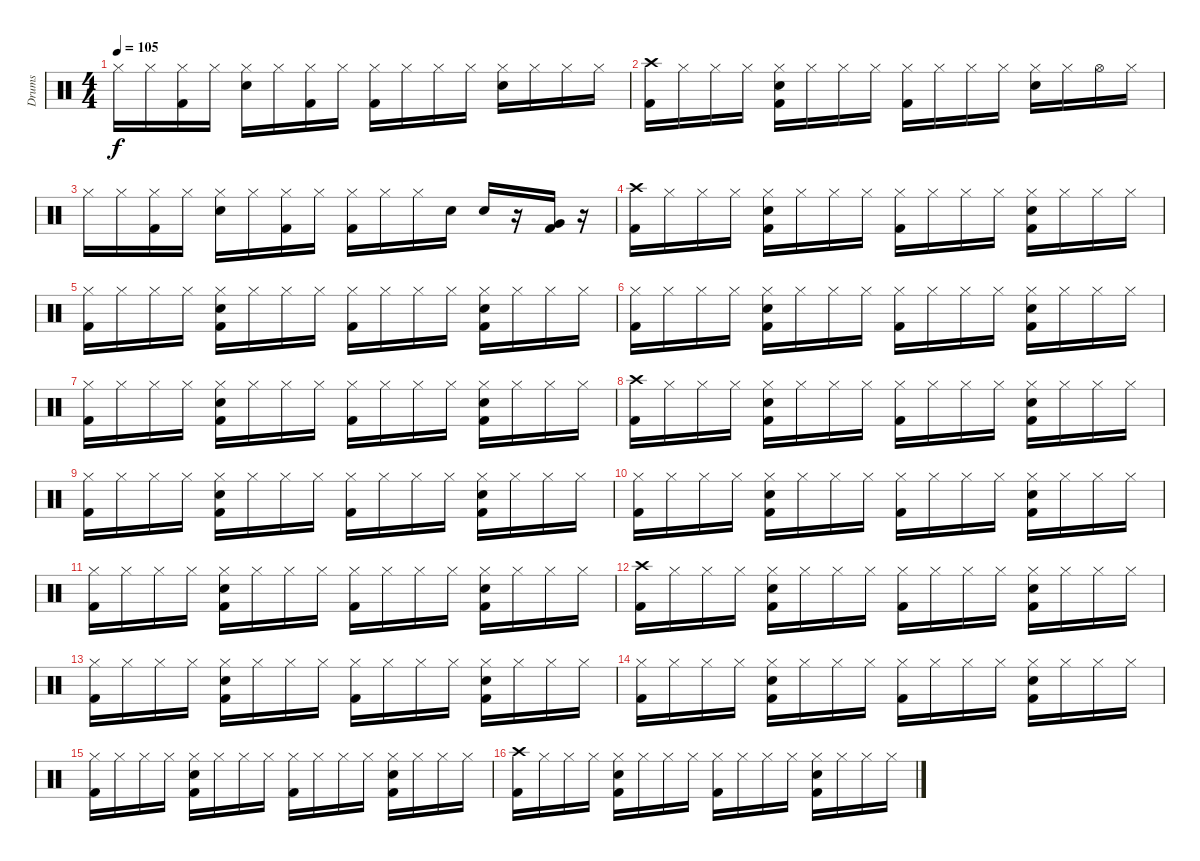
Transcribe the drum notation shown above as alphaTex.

\track ("Drums" "Drums") {instrument percussion}
\staff {score}
\articulation defaults
\ts (4 4)
\tempo 105
\clef neutral
\ks c "Hi-Hat (closed)".16{dy f} "Hi-Hat (closed)".16
("Kick (hit) 2" "Hi-Hat (closed)").16 "Hi-Hat (closed)".16 ("Snare (hit) 2" "Hi-Hat (closed)").16 "Hi-Hat (closed)".16 ("Kick (hit) 2" "Hi-Hat (closed)").16 "Hi-Hat (closed)".16 ("Kick (hit) 2" "Hi-Hat (closed)").16 "Hi-Hat (closed)".16 "Hi-Hat (closed)".16 "Hi-Hat (closed)".16 ("Snare (hit) 2" "Hi-Hat (closed)").16 "Hi-Hat (closed)".16 "Hi-Hat (closed)".16 "Hi-Hat (closed)".16 |
("Kick (hit) 2" "Crash high (hit)").16 "Hi-Hat (closed)".16 "Hi-Hat (closed)".16 "Hi-Hat (closed)".16 ("Snare (hit) 2" "Kick (hit) 2" "Hi-Hat (closed)").16 "Hi-Hat (closed)".16 "Hi-Hat (closed)".16 "Hi-Hat (closed)".16 ("Kick (hit) 2" "Hi-Hat (closed)").16 "Hi-Hat (closed)".16 "Hi-Hat (closed)".16 "Hi-Hat (closed)".16 ("Snare (hit) 2" "Hi-Hat (closed)").16 "Hi-Hat (closed)".16 "Hi-Hat (open)".16 "Hi-Hat (closed)".16 |
"Hi-Hat (closed)".16 "Hi-Hat (closed)".16 ("Kick (hit) 2" "Hi-Hat (closed)").16 "Hi-Hat (closed)".16 ("Snare (hit) 2" "Hi-Hat (closed)").16 "Hi-Hat (closed)".16 ("Kick (hit) 2" "Hi-Hat (closed)").16 "Hi-Hat (closed)".16 ("Kick (hit) 2" "Hi-Hat (closed)").16 "Hi-Hat (closed)".16 "Hi-Hat (closed)".16 "Snare (hit) 2".16 "Snare (hit) 2".16 r.16 ("Very Low Tom (hit)" "Kick (hit) 2").16 r.16 |
("Kick (hit) 2" "Crash high (hit)").16 "Hi-Hat (closed)".16 "Hi-Hat (closed)".16 "Hi-Hat (closed)".16 ("Kick (hit) 2" "Snare (hit) 2" "Hi-Hat (closed)").16 "Hi-Hat (closed)".16 "Hi-Hat (closed)".16 "Hi-Hat (closed)".16 ("Kick (hit) 2" "Hi-Hat (closed)").16 "Hi-Hat (closed)".16 "Hi-Hat (closed)".16 "Hi-Hat (closed)".16 ("Kick (hit) 2" "Snare (hit) 2" "Hi-Hat (closed)").16 "Hi-Hat (closed)".16 "Hi-Hat (closed)".16 "Hi-Hat (closed)".16 |
("Kick (hit) 2" "Hi-Hat (closed)").16 "Hi-Hat (closed)".16 "Hi-Hat (closed)".16 "Hi-Hat (closed)".16 ("Kick (hit) 2" "Snare (hit) 2" "Hi-Hat (closed)").16 "Hi-Hat (closed)".16 "Hi-Hat (closed)".16 "Hi-Hat (closed)".16 ("Kick (hit) 2" "Hi-Hat (closed)").16 "Hi-Hat (closed)".16 "Hi-Hat (closed)".16 "Hi-Hat (closed)".16 ("Kick (hit) 2" "Snare (hit) 2" "Hi-Hat (closed)").16 "Hi-Hat (closed)".16 "Hi-Hat (closed)".16 "Hi-Hat (closed)".16 |
("Kick (hit) 2" "Hi-Hat (closed)").16 "Hi-Hat (closed)".16 "Hi-Hat (closed)".16 "Hi-Hat (closed)".16 ("Kick (hit) 2" "Snare (hit) 2" "Hi-Hat (closed)").16 "Hi-Hat (closed)".16 "Hi-Hat (closed)".16 "Hi-Hat (closed)".16 ("Kick (hit) 2" "Hi-Hat (closed)").16 "Hi-Hat (closed)".16 "Hi-Hat (closed)".16 "Hi-Hat (closed)".16 ("Kick (hit) 2" "Snare (hit) 2" "Hi-Hat (closed)").16 "Hi-Hat (closed)".16 "Hi-Hat (closed)".16 "Hi-Hat (closed)".16 |
("Kick (hit) 2" "Hi-Hat (closed)").16 "Hi-Hat (closed)".16 "Hi-Hat (closed)".16 "Hi-Hat (closed)".16 ("Kick (hit) 2" "Snare (hit) 2" "Hi-Hat (closed)").16 "Hi-Hat (closed)".16 "Hi-Hat (closed)".16 "Hi-Hat (closed)".16 ("Kick (hit) 2" "Hi-Hat (closed)").16 "Hi-Hat (closed)".16 "Hi-Hat (closed)".16 "Hi-Hat (closed)".16 ("Kick (hit) 2" "Snare (hit) 2" "Hi-Hat (closed)").16 "Hi-Hat (closed)".16 "Hi-Hat (closed)".16 "Hi-Hat (closed)".16 |
("Kick (hit) 2" "Crash high (hit)").16 "Hi-Hat (closed)".16 "Hi-Hat (closed)".16 "Hi-Hat (closed)".16 ("Kick (hit) 2" "Snare (hit) 2" "Hi-Hat (closed)").16 "Hi-Hat (closed)".16 "Hi-Hat (closed)".16 "Hi-Hat (closed)".16 ("Kick (hit) 2" "Hi-Hat (closed)").16 "Hi-Hat (closed)".16 "Hi-Hat (closed)".16 "Hi-Hat (closed)".16 ("Kick (hit) 2" "Snare (hit) 2" "Hi-Hat (closed)").16 "Hi-Hat (closed)".16 "Hi-Hat (closed)".16 "Hi-Hat (closed)".16 |
("Kick (hit) 2" "Hi-Hat (closed)").16 "Hi-Hat (closed)".16 "Hi-Hat (closed)".16 "Hi-Hat (closed)".16 ("Kick (hit) 2" "Snare (hit) 2" "Hi-Hat (closed)").16 "Hi-Hat (closed)".16 "Hi-Hat (closed)".16 "Hi-Hat (closed)".16 ("Kick (hit) 2" "Hi-Hat (closed)").16 "Hi-Hat (closed)".16 "Hi-Hat (closed)".16 "Hi-Hat (closed)".16 ("Kick (hit) 2" "Snare (hit) 2" "Hi-Hat (closed)").16 "Hi-Hat (closed)".16 "Hi-Hat (closed)".16 "Hi-Hat (closed)".16 |
("Kick (hit) 2" "Hi-Hat (closed)").16 "Hi-Hat (closed)".16 "Hi-Hat (closed)".16 "Hi-Hat (closed)".16 ("Kick (hit) 2" "Snare (hit) 2" "Hi-Hat (closed)").16 "Hi-Hat (closed)".16 "Hi-Hat (closed)".16 "Hi-Hat (closed)".16 ("Kick (hit) 2" "Hi-Hat (closed)").16 "Hi-Hat (closed)".16 "Hi-Hat (closed)".16 "Hi-Hat (closed)".16 ("Kick (hit) 2" "Snare (hit) 2" "Hi-Hat (closed)").16 "Hi-Hat (closed)".16 "Hi-Hat (closed)".16 "Hi-Hat (closed)".16 |
("Kick (hit) 2" "Hi-Hat (closed)").16 "Hi-Hat (closed)".16 "Hi-Hat (closed)".16 "Hi-Hat (closed)".16 ("Kick (hit) 2" "Snare (hit) 2" "Hi-Hat (closed)").16 "Hi-Hat (closed)".16 "Hi-Hat (closed)".16 "Hi-Hat (closed)".16 ("Kick (hit) 2" "Hi-Hat (closed)").16 "Hi-Hat (closed)".16 "Hi-Hat (closed)".16 "Hi-Hat (closed)".16 ("Kick (hit) 2" "Snare (hit) 2" "Hi-Hat (closed)").16 "Hi-Hat (closed)".16 "Hi-Hat (closed)".16 "Hi-Hat (closed)".16 |
("Kick (hit) 2" "Crash high (hit)").16 "Hi-Hat (closed)".16 "Hi-Hat (closed)".16 "Hi-Hat (closed)".16 ("Kick (hit) 2" "Snare (hit) 2" "Hi-Hat (closed)").16 "Hi-Hat (closed)".16 "Hi-Hat (closed)".16 "Hi-Hat (closed)".16 ("Kick (hit) 2" "Hi-Hat (closed)").16 "Hi-Hat (closed)".16 "Hi-Hat (closed)".16 "Hi-Hat (closed)".16 ("Kick (hit) 2" "Snare (hit) 2" "Hi-Hat (closed)").16 "Hi-Hat (closed)".16 "Hi-Hat (closed)".16 "Hi-Hat (closed)".16 |
("Kick (hit) 2" "Hi-Hat (closed)").16 "Hi-Hat (closed)".16 "Hi-Hat (closed)".16 "Hi-Hat (closed)".16 ("Kick (hit) 2" "Snare (hit) 2" "Hi-Hat (closed)").16 "Hi-Hat (closed)".16 "Hi-Hat (closed)".16 "Hi-Hat (closed)".16 ("Kick (hit) 2" "Hi-Hat (closed)").16 "Hi-Hat (closed)".16 "Hi-Hat (closed)".16 "Hi-Hat (closed)".16 ("Kick (hit) 2" "Snare (hit) 2" "Hi-Hat (closed)").16 "Hi-Hat (closed)".16 "Hi-Hat (closed)".16 "Hi-Hat (closed)".16 |
("Kick (hit) 2" "Hi-Hat (closed)").16 "Hi-Hat (closed)".16 "Hi-Hat (closed)".16 "Hi-Hat (closed)".16 ("Kick (hit) 2" "Snare (hit) 2" "Hi-Hat (closed)").16 "Hi-Hat (closed)".16 "Hi-Hat (closed)".16 "Hi-Hat (closed)".16 ("Kick (hit) 2" "Hi-Hat (closed)").16 "Hi-Hat (closed)".16 "Hi-Hat (closed)".16 "Hi-Hat (closed)".16 ("Kick (hit) 2" "Snare (hit) 2" "Hi-Hat (closed)").16 "Hi-Hat (closed)".16 "Hi-Hat (closed)".16 "Hi-Hat (closed)".16 |
("Kick (hit) 2" "Hi-Hat (closed)").16 "Hi-Hat (closed)".16 "Hi-Hat (closed)".16 "Hi-Hat (closed)".16 ("Kick (hit) 2" "Snare (hit) 2" "Hi-Hat (closed)").16 "Hi-Hat (closed)".16 "Hi-Hat (closed)".16 "Hi-Hat (closed)".16 ("Kick (hit) 2" "Hi-Hat (closed)").16 "Hi-Hat (closed)".16 "Hi-Hat (closed)".16 "Hi-Hat (closed)".16 ("Kick (hit) 2" "Snare (hit) 2" "Hi-Hat (closed)").16 "Hi-Hat (closed)".16 "Hi-Hat (closed)".16 "Hi-Hat (closed)".16 |
("Kick (hit) 2" "Crash high (hit)").16 "Hi-Hat (closed)".16 "Hi-Hat (closed)".16 "Hi-Hat (closed)".16 ("Kick (hit) 2" "Snare (hit) 2" "Hi-Hat (closed)").16 "Hi-Hat (closed)".16 "Hi-Hat (closed)".16 "Hi-Hat (closed)".16 ("Kick (hit) 2" "Hi-Hat (closed)").16 "Hi-Hat (closed)".16 "Hi-Hat (closed)".16 "Hi-Hat (closed)".16 ("Kick (hit) 2" "Snare (hit) 2" "Hi-Hat (closed)").16 "Hi-Hat (closed)".16 "Hi-Hat (closed)".16 "Hi-Hat (closed)".16
